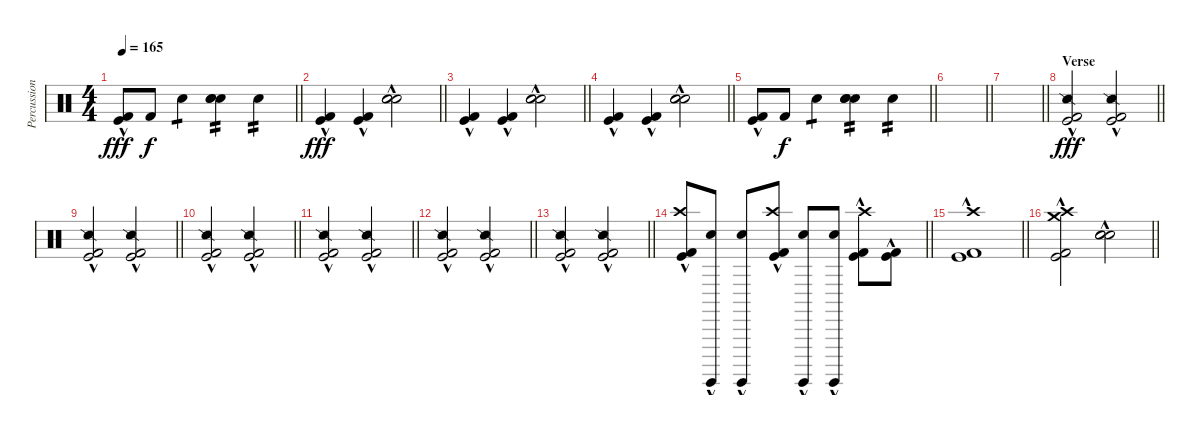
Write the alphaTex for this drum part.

\track ("Percussion" "Percussion") {instrument percussion}
\staff {score}
\articulation defaults
\ts (4 4)
\tempo 165
\clef neutral
\barLineRight lightlight
\ks c
("Kick (hit) 2"{hac} "Kick (hit)"{hac}).8{dy fff} "Kick (hit) 2".8{dy f} "Electric Snare (hit)".4{tp 1} ("Snare (hit) 2" "Hand Clap (hit)" "Electric Snare (hit)").4{tp 2} "Electric Snare (hit)".4{tp 2} |
\barLineRight lightlight
("Kick (hit) 2"{hac} "Kick (hit)"{hac}).4{dy fff} ("Kick (hit) 2"{hac} "Kick (hit)"{hac}).4 ("Snare (hit) 2" "Hand Clap (hit)"{hac} "Electric Snare (hit)").2 |
\barLineRight lightlight
("Kick (hit) 2"{hac} "Kick (hit)"{hac}).4 ("Kick (hit) 2"{hac} "Kick (hit)"{hac}).4 ("Snare (hit) 2" "Hand Clap (hit)"{hac} "Electric Snare (hit)").2 |
\barLineRight lightlight
("Kick (hit) 2"{hac} "Kick (hit)"{hac}).4 ("Kick (hit) 2"{hac} "Kick (hit)"{hac}).4 ("Snare (hit) 2" "Hand Clap (hit)"{hac} "Electric Snare (hit)").2 |
\barLineRight lightlight
("Kick (hit) 2"{hac} "Kick (hit)"{hac}).8 "Kick (hit) 2".8{dy f} "Electric Snare (hit)".4{tp 1} ("Snare (hit) 2" "Hand Clap (hit)" "Electric Snare (hit)").4{tp 2} "Electric Snare (hit)".4{tp 2} |
\barLineRight lightlight
|
\barLineRight lightlight
|
\section ("" "Verse")
\barLineRight lightlight
("Snare (side stick) 2" "Kick (hit) 2"{hac} "Kick (hit)"{hac}).2{dy fff} ("Snare (side stick) 2" "Kick (hit) 2"{hac} "Kick (hit)"{hac}).2 |
\barLineRight lightlight
("Snare (side stick) 2" "Kick (hit) 2"{hac} "Kick (hit)"{hac}).2 ("Snare (side stick) 2" "Kick (hit) 2"{hac} "Kick (hit)"{hac}).2 |
\barLineRight lightlight
("Snare (side stick) 2" "Kick (hit) 2"{hac} "Kick (hit)"{hac}).2 ("Snare (side stick) 2" "Kick (hit) 2"{hac} "Kick (hit)"{hac}).2 |
\barLineRight lightlight
("Snare (side stick) 2" "Kick (hit) 2"{hac} "Kick (hit)"{hac}).2 ("Snare (side stick) 2" "Kick (hit) 2"{hac} "Kick (hit)"{hac}).2 |
\barLineRight lightlight
("Snare (side stick) 2" "Kick (hit) 2"{hac} "Kick (hit)"{hac}).2 ("Snare (side stick) 2" "Kick (hit) 2"{hac} "Kick (hit)"{hac}).2 |
\barLineRight lightlight
("Snare (side stick) 2" "Kick (hit) 2"{hac} "Kick (hit)"{hac}).2 ("Snare (side stick) 2" "Kick (hit) 2"{hac} "Kick (hit)"{hac}).2 |
\barLineRight lightlight
("Crash high (hit)"{hac} "Kick (hit) 2"{hac} "Kick (hit)"{hac}).8 ("Electric Snare (hit)"{hac} "Surdo (hit)"{hac}).8 ("Electric Snare (hit)"{hac} "Surdo (hit)"{hac}).8 ("Crash high (hit)"{hac} "Kick (hit) 2"{hac} "Kick (hit)"{hac}).8 ("Electric Snare (hit)"{hac} "Surdo (hit)"{hac}).8 ("Electric Snare (hit)"{hac} "Surdo (hit)"{hac}).8 ("Crash high (hit)"{hac} "Kick (hit) 2"{hac} "Kick (hit)"{hac}).8 ("Kick (hit) 2"{hac} "Kick (hit)"{hac}).8 |
\barLineRight lightlight
("Crash high (hit)" "Kick (hit) 2"{hac} "Kick (hit)"{hac}).1 |
\barLineRight lightlight
("Crash high (hit)" "Crash medium (hit)" "Kick (hit) 2"{hac} "Kick (hit)"{hac}).2 ("Snare (hit) 2" "Hand Clap (hit)"{hac} "Electric Snare (hit)").2
